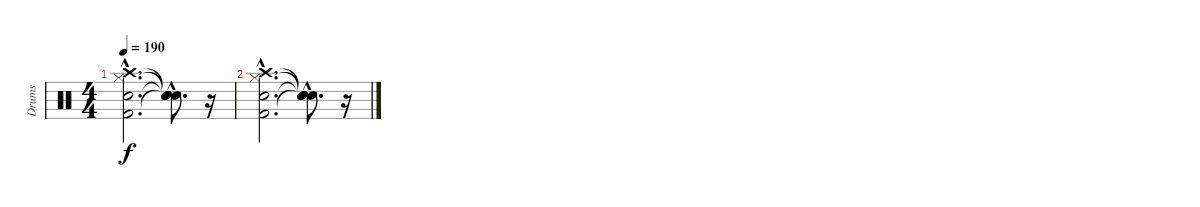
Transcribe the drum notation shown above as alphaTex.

\track ("Drums" "Drums") {instrument percussion}
\staff {score}
\articulation defaults
\ts (4 4)
\tempo 190
\clef neutral
\ks c
("Kick (hit) 2"{hac} "Snare (hit) 2"{hac} "Hi-Hat (closed)"{hac} "Crash high (hit)"{hac}).2{d dy f} ("Snare (hit)"{hac t} "Snare (hit)"{hac t} "Snare (hit)"{hac t} "Snare (hit)"{hac t}).8{d} r.16 |
("Kick (hit) 2"{hac} "Snare (hit) 2"{hac} "Hi-Hat (closed)"{hac} "Crash high (hit)"{hac}).2{d} ("Snare (hit)"{hac t} "Snare (hit)"{hac t} "Snare (hit)"{hac t} "Snare (hit)"{hac t}).8{d} r.16
